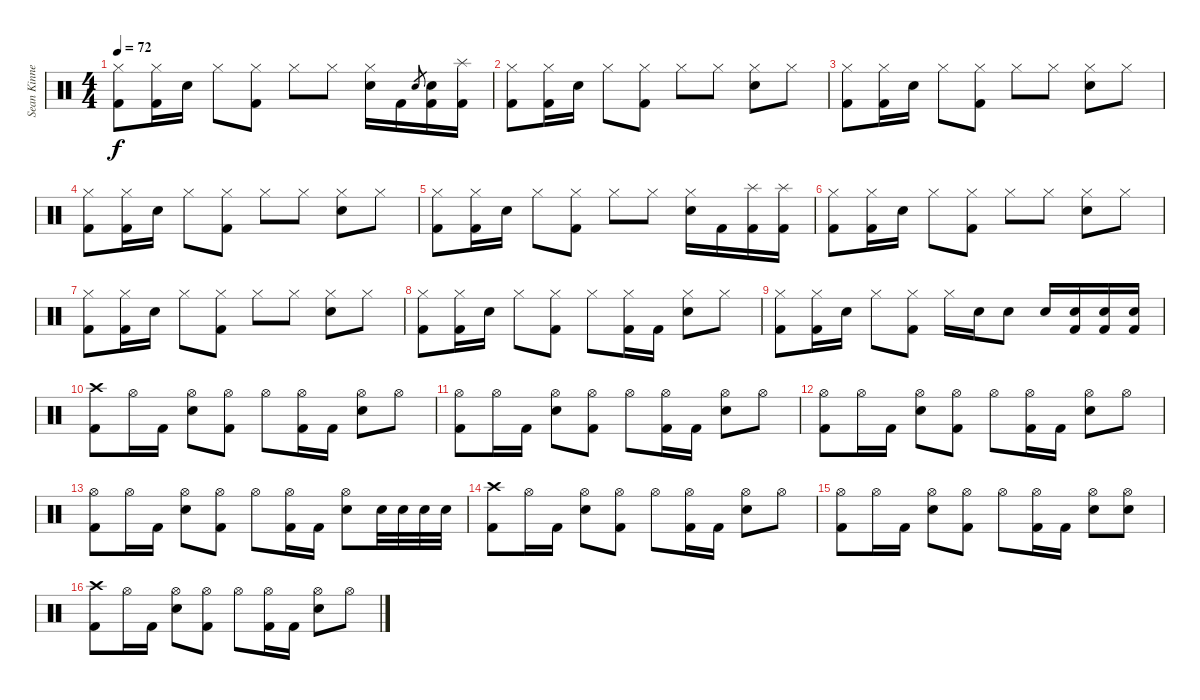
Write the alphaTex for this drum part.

\track ("Sean Kinney - Drums" "Sean Kinne") {instrument percussion}
\staff {score}
\articulation defaults
\ts (4 4)
\tempo 72
\clef neutral
\ks c
("Hi-Hat (closed)" "Kick (hit) 2").8{dy f} ("Hi-Hat (closed)" "Kick (hit) 2").16 "Electric Snare (hit)".16 "Hi-Hat (closed)".8 ("Hi-Hat (closed)" "Kick (hit) 2").8 "Hi-Hat (closed)".8 "Hi-Hat (closed)".8 ("Hi-Hat (closed)" "Electric Snare (hit)").16 "Kick (hit) 2".16 "Electric Snare (hit)".8{gr} ("Electric Snare (hit)" "Kick (hit) 2").16 ("Splash (hit)" "Kick (hit) 2").16 |
("Hi-Hat (closed)" "Kick (hit) 2").8 ("Hi-Hat (closed)" "Kick (hit) 2").16 "Electric Snare (hit)".16 "Hi-Hat (closed)".8 ("Hi-Hat (closed)" "Kick (hit) 2").8 "Hi-Hat (closed)".8 "Hi-Hat (closed)".8 ("Hi-Hat (closed)" "Electric Snare (hit)").8 "Hi-Hat (closed)".8 |
("Hi-Hat (closed)" "Kick (hit) 2").8 ("Hi-Hat (closed)" "Kick (hit) 2").16 "Electric Snare (hit)".16 "Hi-Hat (closed)".8 ("Hi-Hat (closed)" "Kick (hit) 2").8 "Hi-Hat (closed)".8 "Hi-Hat (closed)".8 ("Hi-Hat (closed)" "Electric Snare (hit)").8 "Hi-Hat (closed)".8 |
("Hi-Hat (closed)" "Kick (hit) 2").8 ("Hi-Hat (closed)" "Kick (hit) 2").16 "Electric Snare (hit)".16 "Hi-Hat (closed)".8 ("Hi-Hat (closed)" "Kick (hit) 2").8 "Hi-Hat (closed)".8 "Hi-Hat (closed)".8 ("Hi-Hat (closed)" "Electric Snare (hit)").8 "Hi-Hat (closed)".8 |
("Hi-Hat (closed)" "Kick (hit) 2").8 ("Hi-Hat (closed)" "Kick (hit) 2").16 "Electric Snare (hit)".16 "Hi-Hat (closed)".8 ("Hi-Hat (closed)" "Kick (hit) 2").8 "Hi-Hat (closed)".8 "Hi-Hat (closed)".8 ("Hi-Hat (closed)" "Electric Snare (hit)").16 "Kick (hit) 2".16 ("Splash (hit)" "Kick (hit) 2").16 ("Splash (hit)" "Kick (hit) 2").16 |
("Hi-Hat (closed)" "Kick (hit) 2").8 ("Hi-Hat (closed)" "Kick (hit) 2").16 "Electric Snare (hit)".16 "Hi-Hat (closed)".8 ("Hi-Hat (closed)" "Kick (hit) 2").8 "Hi-Hat (closed)".8 "Hi-Hat (closed)".8 ("Hi-Hat (closed)" "Electric Snare (hit)").8 "Hi-Hat (closed)".8 |
("Hi-Hat (closed)" "Kick (hit) 2").8 ("Hi-Hat (closed)" "Kick (hit) 2").16 "Electric Snare (hit)".16 "Hi-Hat (closed)".8 ("Hi-Hat (closed)" "Kick (hit) 2").8 "Hi-Hat (closed)".8 "Hi-Hat (closed)".8 ("Hi-Hat (closed)" "Electric Snare (hit)").8 "Hi-Hat (closed)".8 |
("Hi-Hat (closed)" "Kick (hit) 2").8 ("Hi-Hat (closed)" "Kick (hit) 2").16 "Electric Snare (hit)".16 "Hi-Hat (closed)".8 ("Hi-Hat (closed)" "Kick (hit) 2").8 "Hi-Hat (closed)".8 ("Hi-Hat (closed)" "Kick (hit) 2").16 "Kick (hit) 2".16 ("Hi-Hat (closed)" "Electric Snare (hit)").8 "Hi-Hat (closed)".8 |
("Hi-Hat (closed)" "Kick (hit) 2").8 ("Hi-Hat (closed)" "Kick (hit) 2").16 "Electric Snare (hit)".16 "Hi-Hat (closed)".8 ("Hi-Hat (closed)" "Kick (hit) 2").8 "Hi-Hat (closed)".16 "Electric Snare (hit)".16 "Electric Snare (hit)".8 "Electric Snare (hit)".16 ("Electric Snare (hit)" "Kick (hit) 2").16 ("Electric Snare (hit)" "Kick (hit) 2").16 ("Electric Snare (hit)" "Kick (hit) 2").16 |
("Crash high (hit)" "Kick (hit) 2").8 "Hi-Hat (open)".16 "Kick (hit) 2".16 ("Hi-Hat (open)" "Electric Snare (hit)").8 ("Hi-Hat (open)" "Kick (hit) 2").8 "Hi-Hat (open)".8 ("Hi-Hat (open)" "Kick (hit) 2").16 "Kick (hit) 2".16 ("Hi-Hat (open)" "Electric Snare (hit)").8 "Hi-Hat (open)".8 |
("Hi-Hat (open)" "Kick (hit) 2").8 "Hi-Hat (open)".16 "Kick (hit) 2".16 ("Hi-Hat (open)" "Electric Snare (hit)").8 ("Hi-Hat (open)" "Kick (hit) 2").8 "Hi-Hat (open)".8 ("Hi-Hat (open)" "Kick (hit) 2").16 "Kick (hit) 2".16 ("Hi-Hat (open)" "Electric Snare (hit)").8 "Hi-Hat (open)".8 |
("Hi-Hat (open)" "Kick (hit) 2").8 "Hi-Hat (open)".16 "Kick (hit) 2".16 ("Hi-Hat (open)" "Electric Snare (hit)").8 ("Hi-Hat (open)" "Kick (hit) 2").8 "Hi-Hat (open)".8 ("Hi-Hat (open)" "Kick (hit) 2").16 "Kick (hit) 2".16 ("Hi-Hat (open)" "Electric Snare (hit)").8 "Hi-Hat (open)".8 |
("Hi-Hat (open)" "Kick (hit) 2").8 "Hi-Hat (open)".16 "Kick (hit) 2".16 ("Hi-Hat (open)" "Electric Snare (hit)").8 ("Hi-Hat (open)" "Kick (hit) 2").8 "Hi-Hat (open)".8 ("Hi-Hat (open)" "Kick (hit) 2").16 "Kick (hit) 2".16 ("Hi-Hat (open)" "Electric Snare (hit)").8 "Electric Snare (hit)".32 "Electric Snare (hit)".32 "Electric Snare (hit)".32 "Electric Snare (hit)".32 |
("Crash high (hit)" "Kick (hit) 2").8 "Hi-Hat (open)".16 "Kick (hit) 2".16 ("Hi-Hat (open)" "Electric Snare (hit)").8 ("Hi-Hat (open)" "Kick (hit) 2").8 "Hi-Hat (open)".8 ("Hi-Hat (open)" "Kick (hit) 2").16 "Kick (hit) 2".16 ("Hi-Hat (open)" "Electric Snare (hit)").8 "Hi-Hat (open)".8 |
("Hi-Hat (open)" "Kick (hit) 2").8 "Hi-Hat (open)".16 "Kick (hit) 2".16 ("Hi-Hat (open)" "Electric Snare (hit)").8 ("Hi-Hat (open)" "Kick (hit) 2").8 "Hi-Hat (open)".8 ("Hi-Hat (open)" "Kick (hit) 2").16 "Kick (hit) 2".16 ("Hi-Hat (open)" "Electric Snare (hit)").8 ("Hi-Hat (open)" "Electric Snare (hit)").8 |
("Crash high (hit)" "Kick (hit) 2").8 "Hi-Hat (open)".16 "Kick (hit) 2".16 ("Hi-Hat (open)" "Electric Snare (hit)").8 ("Hi-Hat (open)" "Kick (hit) 2").8 "Hi-Hat (open)".8 ("Hi-Hat (open)" "Kick (hit) 2").16 "Kick (hit) 2".16 ("Hi-Hat (open)" "Electric Snare (hit)").8 "Hi-Hat (open)".8
